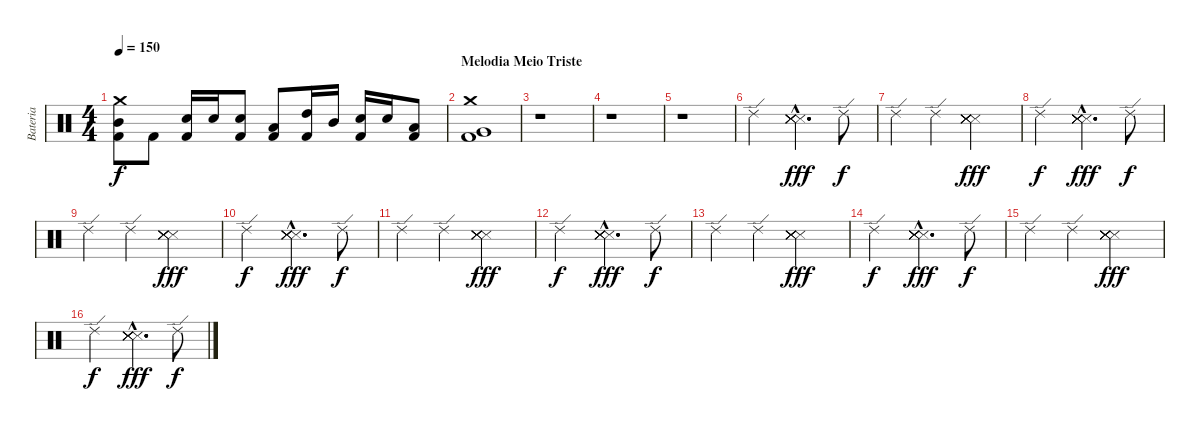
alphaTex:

\track ("Bateria" "Bateria") {instrument percussion}
\staff {score}
\articulation defaults
\ts (4 4)
\tempo 150
\clef neutral
\ks c
("Kick (hit) 2" "Mid Tom (hit)" "Crash medium (hit)").8{dy f} "Kick (hit) 2".8 ("Kick (hit) 2" "Electric Snare (hit)").16 "Electric Snare (hit)".16 ("Kick (hit) 2" "Electric Snare (hit)").8 ("Kick (hit) 2" "Low Tom (hit)").8 ("Kick (hit) 2" "High Tom (hit)").16 "Mid Tom (hit)".16 ("Kick (hit) 2" "Electric Snare (hit)").16 "Electric Snare (hit)".16 ("Kick (hit) 2" "Low Tom (hit)").8 |
\section ("" "Melodia Meio Triste")
("Kick (hit) 2" "Very Low Tom (hit)" "Crash medium (hit)").1 |
r.1 |
r.1 |
r.1 |
"Ride (edge) 2".2 ("Snare (side stick) 3"{hac} "Snare (side stick) 3"{hac} "Snare (side stick) 3"{hac} "Snare (side stick) 3"{hac} "Snare (side stick) 3"{hac} "Snare (side stick) 3"{hac}).4{d dy fff} "Ride (edge) 2".8{dy f} |
"Ride (edge) 2".4 "Ride (edge) 2".4 ("Snare (side stick) 3" "Snare (side stick) 3" "Snare (side stick) 3" "Snare (side stick) 3" "Snare (side stick) 3" "Snare (side stick) 3").2{dy fff} |
"Ride (edge) 2".2{dy f} ("Snare (side stick) 3"{hac} "Snare (side stick) 3"{hac} "Snare (side stick) 3"{hac} "Snare (side stick) 3"{hac} "Snare (side stick) 3"{hac} "Snare (side stick) 3"{hac}).4{d dy fff} "Ride (edge) 2".8{dy f} |
"Ride (edge) 2".4 "Ride (edge) 2".4 ("Snare (side stick) 3" "Snare (side stick) 3" "Snare (side stick) 3" "Snare (side stick) 3" "Snare (side stick) 3" "Snare (side stick) 3").2{dy fff} |
"Ride (edge) 2".2{dy f} ("Snare (side stick) 3"{hac} "Snare (side stick) 3"{hac} "Snare (side stick) 3"{hac} "Snare (side stick) 3"{hac} "Snare (side stick) 3"{hac} "Snare (side stick) 3"{hac}).4{d dy fff} "Ride (edge) 2".8{dy f} |
"Ride (edge) 2".4 "Ride (edge) 2".4 ("Snare (side stick) 3" "Snare (side stick) 3" "Snare (side stick) 3" "Snare (side stick) 3" "Snare (side stick) 3" "Snare (side stick) 3").2{dy fff} |
"Ride (edge) 2".2{dy f} ("Snare (side stick) 3"{hac} "Snare (side stick) 3"{hac} "Snare (side stick) 3"{hac} "Snare (side stick) 3"{hac} "Snare (side stick) 3"{hac} "Snare (side stick) 3"{hac}).4{d dy fff} "Ride (edge) 2".8{dy f} |
"Ride (edge) 2".4 "Ride (edge) 2".4 ("Snare (side stick) 3" "Snare (side stick) 3" "Snare (side stick) 3" "Snare (side stick) 3" "Snare (side stick) 3" "Snare (side stick) 3").2{dy fff} |
"Ride (edge) 2".2{dy f} ("Snare (side stick) 3"{hac} "Snare (side stick) 3"{hac} "Snare (side stick) 3"{hac} "Snare (side stick) 3"{hac} "Snare (side stick) 3"{hac} "Snare (side stick) 3"{hac}).4{d dy fff} "Ride (edge) 2".8{dy f} |
"Ride (edge) 2".4 "Ride (edge) 2".4 ("Snare (side stick) 3" "Snare (side stick) 3" "Snare (side stick) 3" "Snare (side stick) 3" "Snare (side stick) 3" "Snare (side stick) 3").2{dy fff} |
"Ride (edge) 2".2{dy f} ("Snare (side stick) 3"{hac} "Snare (side stick) 3"{hac} "Snare (side stick) 3"{hac} "Snare (side stick) 3"{hac} "Snare (side stick) 3"{hac} "Snare (side stick) 3"{hac}).4{d dy fff} "Ride (edge) 2".8{dy f}
